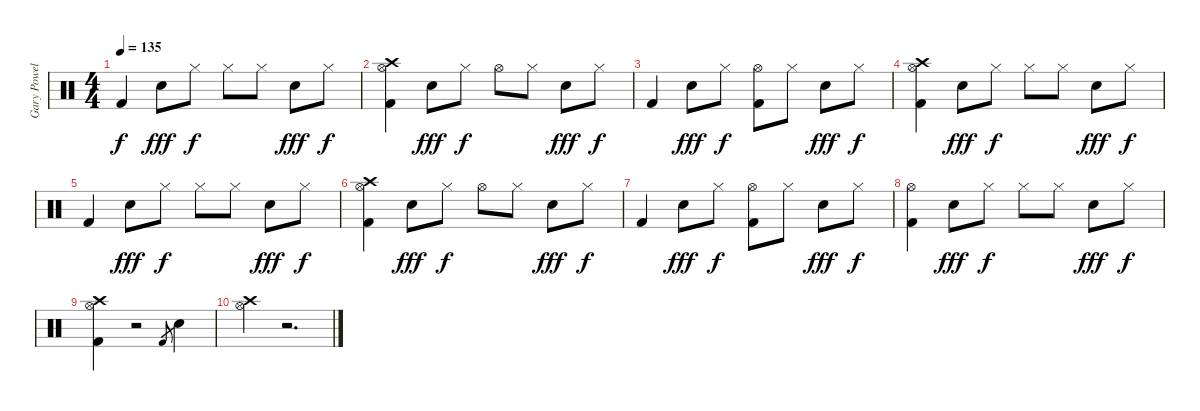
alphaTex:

\track ("Gary Powell" "Gary Powel") {instrument percussion}
\staff {score}
\articulation defaults
\ts (4 4)
\tempo 135
\clef neutral
\ks c "Kick (hit) 2".4{dy f} "Electric Snare (hit)".8{dy fff} "Hi-Hat (closed)".8{dy f} "Hi-Hat (closed)".8 "Hi-Hat (closed)".8 "Electric Snare (hit)".8{dy fff} "Hi-Hat (closed)".8{dy f}
|
("Hi-Hat (open)" "Kick (hit) 2" "Crash high (hit)").4 "Electric Snare (hit)".8{dy fff} "Hi-Hat (closed)".8{dy f} "Hi-Hat (open)".8 "Hi-Hat (closed)".8 "Electric Snare (hit)".8{dy fff} "Hi-Hat (closed)".8{dy f} |
"Kick (hit) 2".4 "Electric Snare (hit)".8{dy fff} "Hi-Hat (closed)".8{dy f} ("Hi-Hat (open)" "Kick (hit) 2").8 "Hi-Hat (closed)".8 "Electric Snare (hit)".8{dy fff} "Hi-Hat (closed)".8{dy f} |
("Hi-Hat (open)" "Kick (hit) 2" "Crash high (hit)").4 "Electric Snare (hit)".8{dy fff} "Hi-Hat (closed)".8{dy f} "Hi-Hat (closed)".8 "Hi-Hat (closed)".8 "Electric Snare (hit)".8{dy fff} "Hi-Hat (closed)".8{dy f} |
"Kick (hit) 2".4 "Electric Snare (hit)".8{dy fff} "Hi-Hat (closed)".8{dy f} "Hi-Hat (closed)".8 "Hi-Hat (closed)".8 "Electric Snare (hit)".8{dy fff} "Hi-Hat (closed)".8{dy f} |
("Hi-Hat (open)" "Kick (hit) 2" "Crash high (hit)").4 "Electric Snare (hit)".8{dy fff} "Hi-Hat (closed)".8{dy f} "Hi-Hat (open)".8 "Hi-Hat (closed)".8 "Electric Snare (hit)".8{dy fff} "Hi-Hat (closed)".8{dy f} |
"Kick (hit) 2".4 "Electric Snare (hit)".8{dy fff} "Hi-Hat (closed)".8{dy f} ("Hi-Hat (open)" "Kick (hit) 2").8 "Hi-Hat (closed)".8 "Electric Snare (hit)".8{dy fff} "Hi-Hat (closed)".8{dy f} |
("Hi-Hat (open)" "Kick (hit) 2").4 "Electric Snare (hit)".8{dy fff} "Hi-Hat (closed)".8{dy f} "Hi-Hat (closed)".8 "Hi-Hat (closed)".8 "Electric Snare (hit)".8{dy fff} "Hi-Hat (closed)".8{dy f} |
("Hi-Hat (open)" "Kick (hit) 2" "Crash high (hit)").4 r.2 "Kick (hit) 2".8{gr} "Electric Snare (hit)".4 |
("Hi-Hat (open)" "Crash high (hit)").4 r.2{d}
